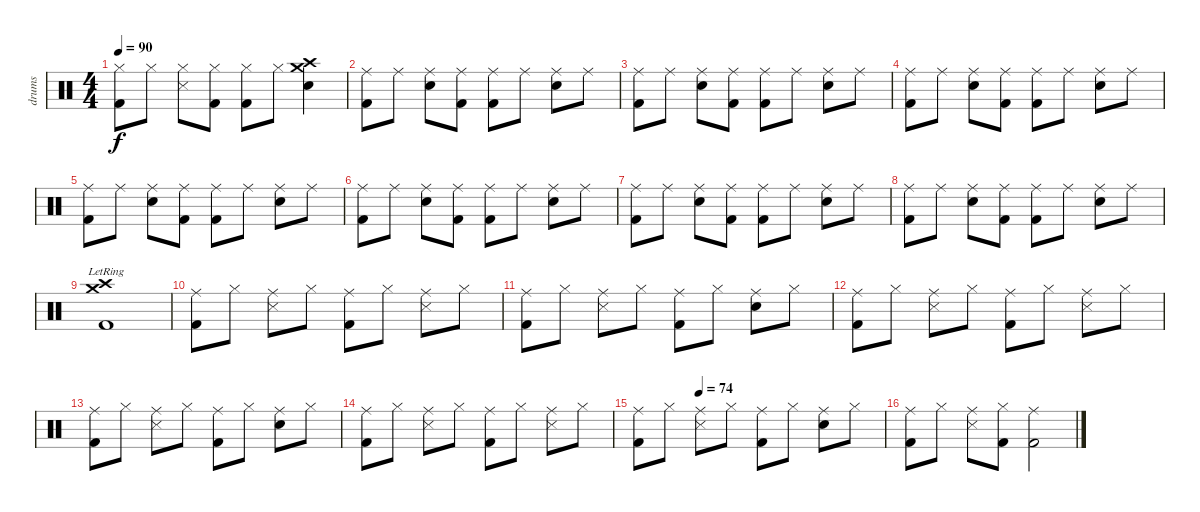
\track ("drums" "drums") {instrument percussion}
\staff {score}
\articulation defaults
\ts (4 4)
\tempo 90
\clef neutral
\ks c
("Hi-Hat (closed)" "Kick (hit) 2").8{dy f} "Hi-Hat (closed)".8 ("Hi-Hat (closed)" "Snare (side stick) 3").8 ("Hi-Hat (closed)" "Kick (hit) 2").8 ("Hi-Hat (closed)" "Kick (hit) 2").8 "Hi-Hat (closed)".8 ("Crash medium (hit)" "Crash high (hit)" "Snare (hit) 2").4 |
("Ride (middle)" "Kick (hit) 2").8 "Ride (middle)".8 ("Ride (middle)" "Snare (hit) 2").8 ("Ride (middle)" "Kick (hit) 2").8 ("Ride (middle)" "Kick (hit) 2").8 "Ride (middle)".8 ("Ride (middle)" "Snare (hit) 2").8 "Ride (middle)".8 |
("Ride (middle)" "Kick (hit) 2").8 "Ride (middle)".8 ("Ride (middle)" "Snare (hit) 2").8 ("Ride (middle)" "Kick (hit) 2").8 ("Ride (middle)" "Kick (hit) 2").8 "Ride (middle)".8 ("Ride (middle)" "Snare (hit) 2").8 "Ride (middle)".8 |
("Ride (middle)" "Kick (hit) 2").8 "Ride (middle)".8 ("Ride (middle)" "Snare (hit) 2").8 ("Ride (middle)" "Kick (hit) 2").8 ("Ride (middle)" "Kick (hit) 2").8 "Ride (middle)".8 ("Ride (middle)" "Snare (hit) 2").8 "Ride (middle)".8 |
("Ride (middle)" "Kick (hit) 2").8 "Ride (middle)".8 ("Ride (middle)" "Snare (hit) 2").8 ("Ride (middle)" "Kick (hit) 2").8 ("Ride (middle)" "Kick (hit) 2").8 "Ride (middle)".8 ("Ride (middle)" "Snare (hit) 2").8 "Ride (middle)".8 |
("Ride (middle)" "Kick (hit) 2").8 "Ride (middle)".8 ("Ride (middle)" "Snare (hit) 2").8 ("Ride (middle)" "Kick (hit) 2").8 ("Ride (middle)" "Kick (hit) 2").8 "Ride (middle)".8 ("Ride (middle)" "Snare (hit) 2").8 "Ride (middle)".8 |
("Ride (middle)" "Kick (hit) 2").8 "Ride (middle)".8 ("Ride (middle)" "Snare (hit) 2").8 ("Ride (middle)" "Kick (hit) 2").8 ("Ride (middle)" "Kick (hit) 2").8 "Ride (middle)".8 ("Ride (middle)" "Snare (hit) 2").8 "Ride (middle)".8 |
("Ride (middle)" "Kick (hit) 2").8 "Ride (middle)".8 ("Ride (middle)" "Snare (hit) 2").8 ("Ride (middle)" "Kick (hit) 2").8 ("Ride (middle)" "Kick (hit) 2").8 "Ride (middle)".8 ("Ride (middle)" "Snare (hit) 2").8 "Ride (middle)".8 |
("Crash medium (hit)"{lr} "Crash high (hit)"{lr} "Kick (hit) 2").1 |
("Ride (middle)" "Kick (hit) 2").8 "Hi-Hat (closed)".8 ("Ride (middle)" "Snare (side stick) 3").8 "Hi-Hat (closed)".8 ("Ride (middle)" "Kick (hit) 2").8 "Hi-Hat (closed)".8 ("Ride (middle)" "Snare (side stick) 3").8 "Hi-Hat (closed)".8 |
("Ride (middle)" "Kick (hit) 2").8 "Hi-Hat (closed)".8 ("Ride (middle)" "Snare (side stick) 3").8 "Hi-Hat (closed)".8 ("Ride (middle)" "Kick (hit) 2").8 "Hi-Hat (closed)".8 ("Ride (middle)" "Snare (hit) 2").8 "Hi-Hat (closed)".8 |
("Ride (middle)" "Kick (hit) 2").8 "Hi-Hat (closed)".8 ("Ride (middle)" "Snare (side stick) 3").8 "Hi-Hat (closed)".8 ("Ride (middle)" "Kick (hit) 2").8 "Hi-Hat (closed)".8 ("Ride (middle)" "Snare (side stick) 3").8 "Hi-Hat (closed)".8 |
("Ride (middle)" "Kick (hit) 2").8 "Hi-Hat (closed)".8 ("Ride (middle)" "Snare (side stick) 3").8 "Hi-Hat (closed)".8 ("Ride (middle)" "Kick (hit) 2").8 "Hi-Hat (closed)".8 ("Ride (middle)" "Snare (hit) 2").8 "Hi-Hat (closed)".8 |
("Ride (middle)" "Kick (hit) 2").8 "Hi-Hat (closed)".8 ("Ride (middle)" "Snare (side stick) 3").8 "Hi-Hat (closed)".8 ("Ride (middle)" "Kick (hit) 2").8 "Hi-Hat (closed)".8 ("Ride (middle)" "Snare (side stick) 3").8 "Hi-Hat (closed)".8 |
\tempo (74 0.25)
("Ride (middle)" "Kick (hit) 2").8 "Hi-Hat (closed)".8 ("Ride (middle)" "Snare (side stick) 3").8 "Hi-Hat (closed)".8 ("Ride (middle)" "Kick (hit) 2").8 "Hi-Hat (closed)".8 ("Ride (middle)" "Snare (hit) 2").8 "Hi-Hat (closed)".8 |
("Ride (middle)" "Kick (hit) 2").8 "Hi-Hat (closed)".8 ("Ride (middle)" "Snare (side stick) 3").8 ("Hi-Hat (closed)" "Kick (hit) 2").8 ("Ride (middle)" "Kick (hit) 2").2
